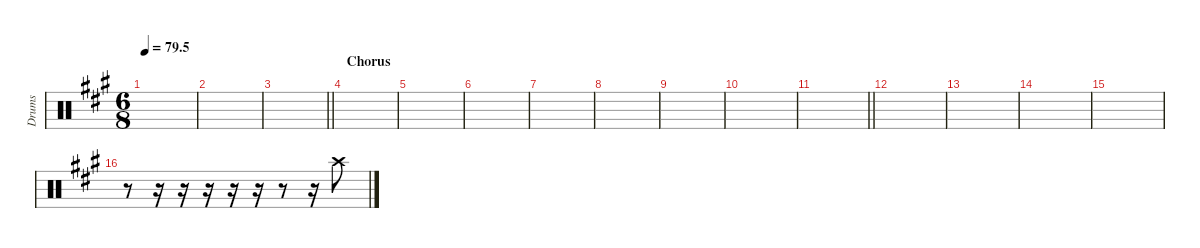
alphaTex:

\defaultSystemsLayout 4
\hideDynamics
\bracketExtendMode nobrackets
\otherSystemsTrackNameOrientation horizontal
\track ("Left crash" "Drums") {instrument percussion}
\staff {score}
\articulation defaults
\ts (6 8)
\tempo
79.5
\accidentals auto
\clef neutral
\ottava regular
\simile none
\scale
0.333333
\ks a
|
\scale
0.333333 |
\scale
0.333333
\barLineRight lightlight
|
\section ("" "Chorus")
\scale
0.333333 |
\scale
0.333333 |
\scale
0.333333 |
\scale
0.333333 |
\scale
0.333333 |
\scale
0.333333 |
\scale
0.333333 |
\scale
0.333333
\barLineRight lightlight
|
\scale
0.333333 |
\scale
0.333333 |
\scale
0.333333 |
\scale
0.333333 |
\scale
0.333333 r.8 r.16 r.16 r.16 r.16 r.16 r.8 r.16 "Crash high (hit)"{acc forcenatural}.8
